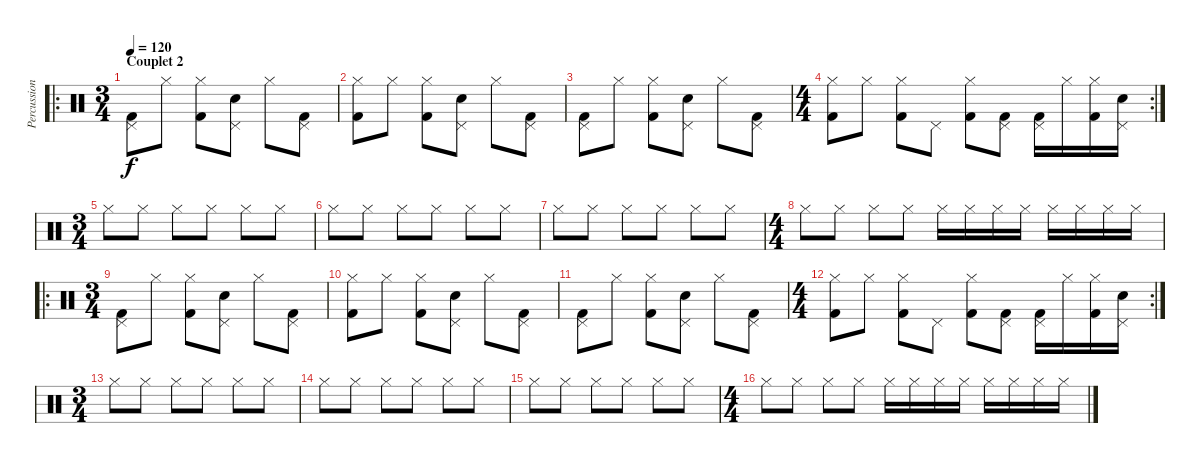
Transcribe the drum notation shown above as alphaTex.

\track ("Percussions" "Percussion") {instrument percussion}
\staff {score}
\articulation defaults
\ro
\ts (3 4)
\section ("" "Couplet 2")
\tempo 120
\clef neutral
\ks c
("Kick (hit) 2" "Pedal Hi-Hat (hit)").8{dy f} "Hi-Hat (closed)".8 ("Kick (hit) 2" "Hi-Hat (closed)").8 ("Snare (hit) 2" "Pedal Hi-Hat (hit)").8 "Hi-Hat (closed)".8 ("Kick (hit) 2" "Pedal Hi-Hat (hit)").8 |
("Kick (hit) 2" "Hi-Hat (closed)").8 "Hi-Hat (closed)".8 ("Kick (hit) 2" "Hi-Hat (closed)").8 ("Snare (hit) 2" "Pedal Hi-Hat (hit)").8 "Hi-Hat (closed)".8 ("Kick (hit) 2" "Pedal Hi-Hat (hit)").8 |
("Kick (hit) 2" "Pedal Hi-Hat (hit)").8 "Hi-Hat (closed)".8 ("Kick (hit) 2" "Hi-Hat (closed)").8 ("Snare (hit) 2" "Pedal Hi-Hat (hit)").8 "Hi-Hat (closed)".8 ("Kick (hit) 2" "Pedal Hi-Hat (hit)").8 |
\rc 2
\ts (4 4)
("Kick (hit) 2" "Hi-Hat (closed)").8 "Hi-Hat (closed)".8 ("Kick (hit) 2" "Hi-Hat (closed)").8 "Pedal Hi-Hat (hit)".8 ("Kick (hit) 2" "Hi-Hat (closed)").8 ("Kick (hit) 2" "Pedal Hi-Hat (hit)").8 ("Kick (hit) 2" "Pedal Hi-Hat (hit)").16 "Hi-Hat (closed)".16 ("Kick (hit) 2" "Hi-Hat (closed)").16 ("Snare (hit) 2" "Pedal Hi-Hat (hit)").16 |
\ts (3 4)
"Hi-Hat (closed)".8 "Hi-Hat (closed)".8 "Hi-Hat (closed)".8 "Hi-Hat (closed)".8 "Hi-Hat (closed)".8 "Hi-Hat (closed)".8 |
"Hi-Hat (closed)".8 "Hi-Hat (closed)".8 "Hi-Hat (closed)".8 "Hi-Hat (closed)".8 "Hi-Hat (closed)".8 "Hi-Hat (closed)".8 |
"Hi-Hat (closed)".8 "Hi-Hat (closed)".8 "Hi-Hat (closed)".8 "Hi-Hat (closed)".8 "Hi-Hat (closed)".8 "Hi-Hat (closed)".8 |
\ts (4 4)
"Hi-Hat (closed)".8 "Hi-Hat (closed)".8 "Hi-Hat (closed)".8 "Hi-Hat (closed)".8 "Hi-Hat (closed)".16 "Hi-Hat (closed)".16 "Hi-Hat (closed)".16 "Hi-Hat (closed)".16 "Hi-Hat (closed)".16 "Hi-Hat (closed)".16 "Hi-Hat (closed)".16 "Hi-Hat (closed)".16 |
\ro
\ts (3 4)
("Kick (hit) 2" "Pedal Hi-Hat (hit)").8 "Hi-Hat (closed)".8 ("Kick (hit) 2" "Hi-Hat (closed)").8 ("Snare (hit) 2" "Pedal Hi-Hat (hit)").8 "Hi-Hat (closed)".8 ("Kick (hit) 2" "Pedal Hi-Hat (hit)").8 |
("Kick (hit) 2" "Hi-Hat (closed)").8 "Hi-Hat (closed)".8 ("Kick (hit) 2" "Hi-Hat (closed)").8 ("Snare (hit) 2" "Pedal Hi-Hat (hit)").8 "Hi-Hat (closed)".8 ("Kick (hit) 2" "Pedal Hi-Hat (hit)").8 |
("Kick (hit) 2" "Pedal Hi-Hat (hit)").8 "Hi-Hat (closed)".8 ("Kick (hit) 2" "Hi-Hat (closed)").8 ("Snare (hit) 2" "Pedal Hi-Hat (hit)").8 "Hi-Hat (closed)".8 ("Kick (hit) 2" "Pedal Hi-Hat (hit)").8 |
\rc 2
\ts (4 4)
("Kick (hit) 2" "Hi-Hat (closed)").8 "Hi-Hat (closed)".8 ("Kick (hit) 2" "Hi-Hat (closed)").8 "Pedal Hi-Hat (hit)".8 ("Kick (hit) 2" "Hi-Hat (closed)").8 ("Kick (hit) 2" "Pedal Hi-Hat (hit)").8 ("Kick (hit) 2" "Pedal Hi-Hat (hit)").16 "Hi-Hat (closed)".16 ("Kick (hit) 2" "Hi-Hat (closed)").16 ("Snare (hit) 2" "Pedal Hi-Hat (hit)").16 |
\ts (3 4)
"Hi-Hat (closed)".8 "Hi-Hat (closed)".8 "Hi-Hat (closed)".8 "Hi-Hat (closed)".8 "Hi-Hat (closed)".8 "Hi-Hat (closed)".8 |
"Hi-Hat (closed)".8 "Hi-Hat (closed)".8 "Hi-Hat (closed)".8 "Hi-Hat (closed)".8 "Hi-Hat (closed)".8 "Hi-Hat (closed)".8 |
"Hi-Hat (closed)".8 "Hi-Hat (closed)".8 "Hi-Hat (closed)".8 "Hi-Hat (closed)".8 "Hi-Hat (closed)".8 "Hi-Hat (closed)".8 |
\ts (4 4)
"Hi-Hat (closed)".8 "Hi-Hat (closed)".8 "Hi-Hat (closed)".8 "Hi-Hat (closed)".8 "Hi-Hat (closed)".16 "Hi-Hat (closed)".16 "Hi-Hat (closed)".16 "Hi-Hat (closed)".16 "Hi-Hat (closed)".16 "Hi-Hat (closed)".16 "Hi-Hat (closed)".16 "Hi-Hat (closed)".16
